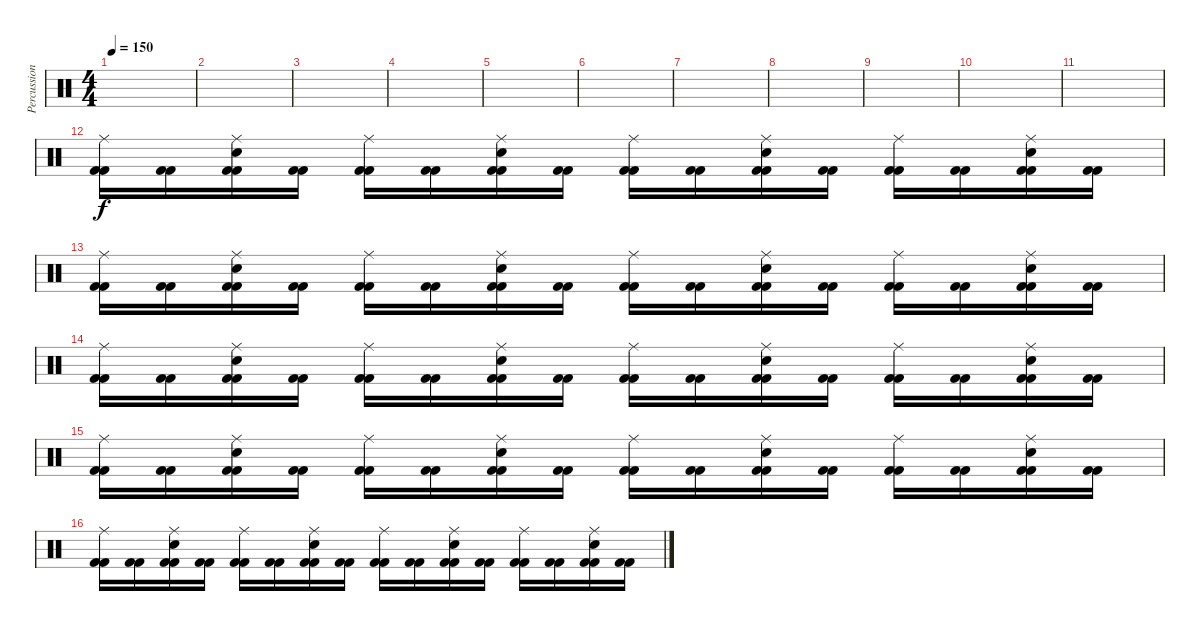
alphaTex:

\track ("Percussion" "Percussion") {instrument percussion}
\staff {score}
\articulation defaults
\ts (4 4)
\tempo 150
\clef neutral
\ks c
|
|
|
|
|
|
|
|
|
|
|
("Kick (hit) 2" "Kick (hit) 2" "Ride (middle)").16 ("Kick (hit) 2" "Kick (hit) 2").16 ("Kick (hit) 2" "Kick (hit) 2" "Electric Snare (hit)" "Ride (middle)").16 ("Kick (hit) 2" "Kick (hit) 2").16 ("Kick (hit) 2" "Kick (hit) 2" "Ride (middle)").16 ("Kick (hit) 2" "Kick (hit) 2").16 ("Kick (hit) 2" "Kick (hit) 2" "Electric Snare (hit)" "Ride (middle)").16 ("Kick (hit) 2" "Kick (hit) 2").16 ("Kick (hit) 2" "Kick (hit) 2" "Ride (middle)").16 ("Kick (hit) 2" "Kick (hit) 2").16 ("Kick (hit) 2" "Kick (hit) 2" "Electric Snare (hit)" "Ride (middle)").16 ("Kick (hit) 2" "Kick (hit) 2").16 ("Kick (hit) 2" "Kick (hit) 2" "Ride (middle)").16 ("Kick (hit) 2" "Kick (hit) 2").16 ("Kick (hit) 2" "Kick (hit) 2" "Electric Snare (hit)" "Ride (middle)").16 ("Kick (hit) 2" "Kick (hit) 2").16 |
("Kick (hit) 2" "Kick (hit) 2" "Ride (middle)").16 ("Kick (hit) 2" "Kick (hit) 2").16 ("Kick (hit) 2" "Kick (hit) 2" "Electric Snare (hit)" "Ride (middle)").16 ("Kick (hit) 2" "Kick (hit) 2").16 ("Kick (hit) 2" "Kick (hit) 2" "Ride (middle)").16 ("Kick (hit) 2" "Kick (hit) 2").16 ("Kick (hit) 2" "Kick (hit) 2" "Electric Snare (hit)" "Ride (middle)").16 ("Kick (hit) 2" "Kick (hit) 2").16 ("Kick (hit) 2" "Kick (hit) 2" "Ride (middle)").16 ("Kick (hit) 2" "Kick (hit) 2").16 ("Kick (hit) 2" "Kick (hit) 2" "Electric Snare (hit)" "Ride (middle)").16 ("Kick (hit) 2" "Kick (hit) 2").16 ("Kick (hit) 2" "Kick (hit) 2" "Ride (middle)").16 ("Kick (hit) 2" "Kick (hit) 2").16 ("Kick (hit) 2" "Kick (hit) 2" "Electric Snare (hit)" "Ride (middle)").16 ("Kick (hit) 2" "Kick (hit) 2").16 |
("Kick (hit) 2" "Kick (hit) 2" "Ride (middle)").16 ("Kick (hit) 2" "Kick (hit) 2").16 ("Kick (hit) 2" "Kick (hit) 2" "Electric Snare (hit)" "Ride (middle)").16 ("Kick (hit) 2" "Kick (hit) 2").16 ("Kick (hit) 2" "Kick (hit) 2" "Ride (middle)").16 ("Kick (hit) 2" "Kick (hit) 2").16 ("Kick (hit) 2" "Kick (hit) 2" "Electric Snare (hit)" "Ride (middle)").16 ("Kick (hit) 2" "Kick (hit) 2").16 ("Kick (hit) 2" "Kick (hit) 2" "Ride (middle)").16 ("Kick (hit) 2" "Kick (hit) 2").16 ("Kick (hit) 2" "Kick (hit) 2" "Electric Snare (hit)" "Ride (middle)").16 ("Kick (hit) 2" "Kick (hit) 2").16 ("Kick (hit) 2" "Kick (hit) 2" "Ride (middle)").16 ("Kick (hit) 2" "Kick (hit) 2").16 ("Kick (hit) 2" "Kick (hit) 2" "Electric Snare (hit)" "Ride (middle)").16 ("Kick (hit) 2" "Kick (hit) 2").16 |
("Kick (hit) 2" "Kick (hit) 2" "Ride (middle)").16 ("Kick (hit) 2" "Kick (hit) 2").16 ("Kick (hit) 2" "Kick (hit) 2" "Electric Snare (hit)" "Ride (middle)").16 ("Kick (hit) 2" "Kick (hit) 2").16 ("Kick (hit) 2" "Kick (hit) 2" "Ride (middle)").16 ("Kick (hit) 2" "Kick (hit) 2").16 ("Kick (hit) 2" "Kick (hit) 2" "Electric Snare (hit)" "Ride (middle)").16 ("Kick (hit) 2" "Kick (hit) 2").16 ("Kick (hit) 2" "Kick (hit) 2" "Ride (middle)").16 ("Kick (hit) 2" "Kick (hit) 2").16 ("Kick (hit) 2" "Kick (hit) 2" "Electric Snare (hit)" "Ride (middle)").16 ("Kick (hit) 2" "Kick (hit) 2").16 ("Kick (hit) 2" "Kick (hit) 2" "Ride (middle)").16 ("Kick (hit) 2" "Kick (hit) 2").16 ("Kick (hit) 2" "Kick (hit) 2" "Electric Snare (hit)" "Ride (middle)").16 ("Kick (hit) 2" "Kick (hit) 2").16 |
("Kick (hit) 2" "Kick (hit) 2" "Ride (middle)").16 ("Kick (hit) 2" "Kick (hit) 2").16 ("Kick (hit) 2" "Kick (hit) 2" "Electric Snare (hit)" "Ride (middle)").16 ("Kick (hit) 2" "Kick (hit) 2").16 ("Kick (hit) 2" "Kick (hit) 2" "Ride (middle)").16 ("Kick (hit) 2" "Kick (hit) 2").16 ("Kick (hit) 2" "Kick (hit) 2" "Electric Snare (hit)" "Ride (middle)").16 ("Kick (hit) 2" "Kick (hit) 2").16 ("Kick (hit) 2" "Kick (hit) 2" "Ride (middle)").16 ("Kick (hit) 2" "Kick (hit) 2").16 ("Kick (hit) 2" "Kick (hit) 2" "Electric Snare (hit)" "Ride (middle)").16 ("Kick (hit) 2" "Kick (hit) 2").16 ("Kick (hit) 2" "Kick (hit) 2" "Ride (middle)").16 ("Kick (hit) 2" "Kick (hit) 2").16 ("Kick (hit) 2" "Kick (hit) 2" "Electric Snare (hit)" "Ride (middle)").16 ("Kick (hit) 2" "Kick (hit) 2").16
